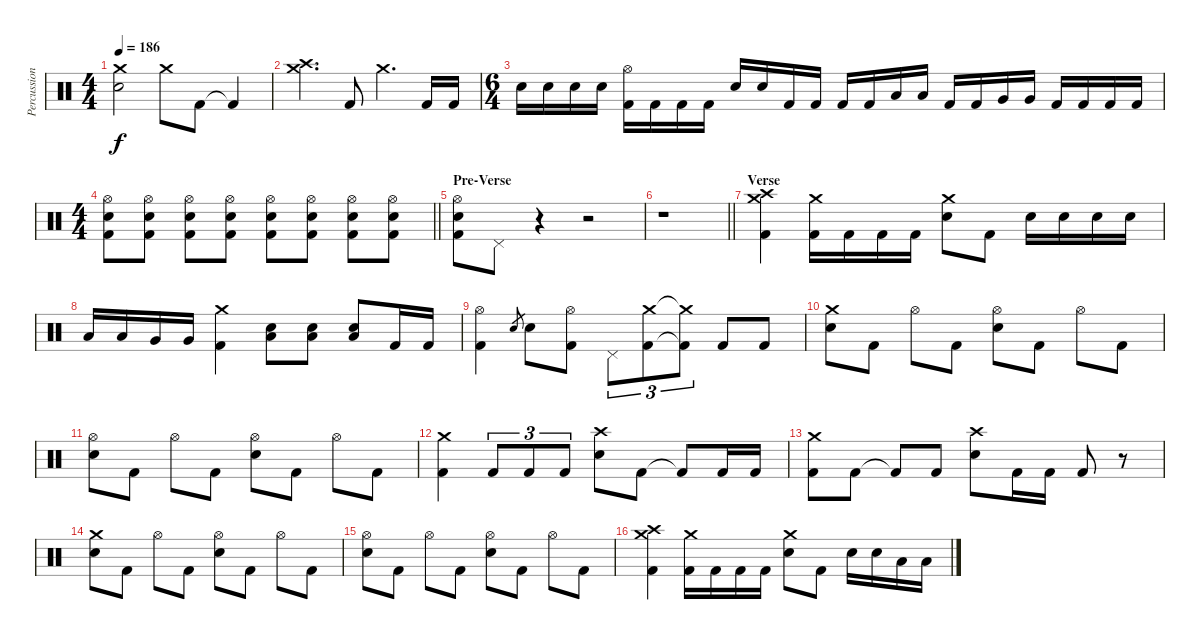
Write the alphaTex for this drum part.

\track ("Percussion" "Percussion") {instrument percussion}
\staff {score}
\articulation defaults
\ts (4 4)
\tempo 186
\clef neutral
\ks c
("Crash medium (hit)" "Electric Snare (hit)").2{dy f} "Crash medium (hit)".8 "Kick (hit) 2".8 "Kick (hit) 2"{t}.4 |
("Crash medium (hit)" "Crash high (hit)").4{d} "Kick (hit) 2".8 "Crash medium (hit)".4{d} "Kick (hit) 2".16 "Kick (hit) 2".16 |
\ts (6 4)
"Electric Snare (hit)".16 "Electric Snare (hit)".16 "Electric Snare (hit)".16 "Electric Snare (hit)".16 ("Hi-Hat (open)" "Kick (hit) 2").16 "Kick (hit) 2".16 "Kick (hit) 2".16 "Kick (hit) 2".16 "Electric Snare (hit)".16 "Electric Snare (hit)".16 "Kick (hit) 2".16 "Kick (hit) 2".16 "Kick (hit) 2".16 "Kick (hit) 2".16 "Low Tom (hit)".16 "Low Tom (hit)".16 "Kick (hit) 2".16 "Kick (hit) 2".16 "Very Low Tom (hit)".16 "Very Low Tom (hit)".16 "Kick (hit) 2".16 "Kick (hit) 2".16 "Kick (hit) 2".16 "Kick (hit) 2".16 |
\ts (4 4)
\barLineRight lightlight
("Hi-Hat (open)" "Electric Snare (hit)" "Kick (hit) 2").8 ("Hi-Hat (open)" "Electric Snare (hit)" "Kick (hit) 2").8 ("Hi-Hat (open)" "Electric Snare (hit)" "Kick (hit) 2").8 ("Hi-Hat (open)" "Electric Snare (hit)" "Kick (hit) 2").8 ("Hi-Hat (open)" "Electric Snare (hit)" "Kick (hit) 2").8 ("Hi-Hat (open)" "Electric Snare (hit)" "Kick (hit) 2").8 ("Hi-Hat (open)" "Electric Snare (hit)" "Kick (hit) 2").8 ("Hi-Hat (open)" "Electric Snare (hit)" "Kick (hit) 2").8 |
\section ("" "Pre-Verse")
("Hi-Hat (open)" "Electric Snare (hit)" "Kick (hit) 2").8 "Pedal Hi-Hat (hit)".8 r.4 r.2 |
\barLineRight lightlight
r.1 |
\section ("" "Verse")
("Crash medium (hit)" "Crash high (hit)" "Kick (hit) 2").4 ("Crash medium (hit)" "Kick (hit) 2").16 "Kick (hit) 2".16 "Kick (hit) 2".16 "Kick (hit) 2".16 ("Crash medium (hit)" "Electric Snare (hit)").8 "Kick (hit) 2".8 "Electric Snare (hit)".16 "Electric Snare (hit)".16 "Electric Snare (hit)".16 "Electric Snare (hit)".16 |
"Low Tom (hit)".16 "Low Tom (hit)".16 "Very Low Tom (hit)".16 "Very Low Tom (hit)".16 ("Crash medium (hit)" "Kick (hit) 2").4 ("Low Tom (hit)" "Electric Snare (hit)").8 ("Low Tom (hit)" "Electric Snare (hit)").8 ("Low Tom (hit)" "Electric Snare (hit)").8 "Kick (hit) 2".16 "Kick (hit) 2".16 |
("Hi-Hat (open)" "Kick (hit) 2").4 "Electric Snare (hit)".8{gr} "Electric Snare (hit)".8 ("Hi-Hat (open)" "Kick (hit) 2").8 "Pedal Hi-Hat (hit)".8{tu (3 2)} ("Crash medium (hit)" "Kick (hit) 2").8{tu (3 2)} ("Crash medium (hit)"{t} "Kick (hit) 2"{t}).8{tu (3 2)} "Kick (hit) 2".8 "Kick (hit) 2".8 |
("Crash medium (hit)" "Electric Snare (hit)").8 "Kick (hit) 2".8 "Hi-Hat (open)".8 "Kick (hit) 2".8 ("Hi-Hat (open)" "Electric Snare (hit)").8 "Kick (hit) 2".8 "Hi-Hat (open)".8 "Kick (hit) 2".8 |
("Hi-Hat (open)" "Electric Snare (hit)").8 "Kick (hit) 2".8 "Hi-Hat (open)".8 "Kick (hit) 2".8 ("Hi-Hat (open)" "Electric Snare (hit)").8 "Kick (hit) 2".8 "Hi-Hat (open)".8 "Kick (hit) 2".8 |
("Crash medium (hit)" "Kick (hit) 2").4 "Kick (hit) 2".8{tu (3 2)} "Kick (hit) 2".8{tu (3 2)} "Kick (hit) 2".8{tu (3 2)} ("Crash high (hit)" "Electric Snare (hit)").8 "Kick (hit) 2".8 "Kick (hit) 2"{t}.8 "Kick (hit) 2".16 "Kick (hit) 2".16 |
("Crash medium (hit)" "Kick (hit) 2").8 "Kick (hit) 2".8 "Kick (hit) 2"{t}.8 "Kick (hit) 2".8 ("Crash high (hit)" "Electric Snare (hit)").8 "Kick (hit) 2".16 "Kick (hit) 2".16 "Kick (hit) 2".8 r.8 |
("Crash medium (hit)" "Electric Snare (hit)").8 "Kick (hit) 2".8 "Hi-Hat (open)".8 "Kick (hit) 2".8 ("Hi-Hat (open)" "Electric Snare (hit)").8 "Kick (hit) 2".8 "Hi-Hat (open)".8 "Kick (hit) 2".8 |
("Hi-Hat (open)" "Electric Snare (hit)").8 "Kick (hit) 2".8 "Hi-Hat (open)".8 "Kick (hit) 2".8 ("Hi-Hat (open)" "Electric Snare (hit)").8 "Kick (hit) 2".8 "Hi-Hat (open)".8 "Kick (hit) 2".8 |
("Crash medium (hit)" "Crash high (hit)" "Kick (hit) 2").4 ("Crash medium (hit)" "Kick (hit) 2").16 "Kick (hit) 2".16 "Kick (hit) 2".16 "Kick (hit) 2".16 ("Crash medium (hit)" "Electric Snare (hit)").8 "Kick (hit) 2".8 "Electric Snare (hit)".16 "Electric Snare (hit)".16 "Low Tom (hit)".16 "Low Tom (hit)".16
